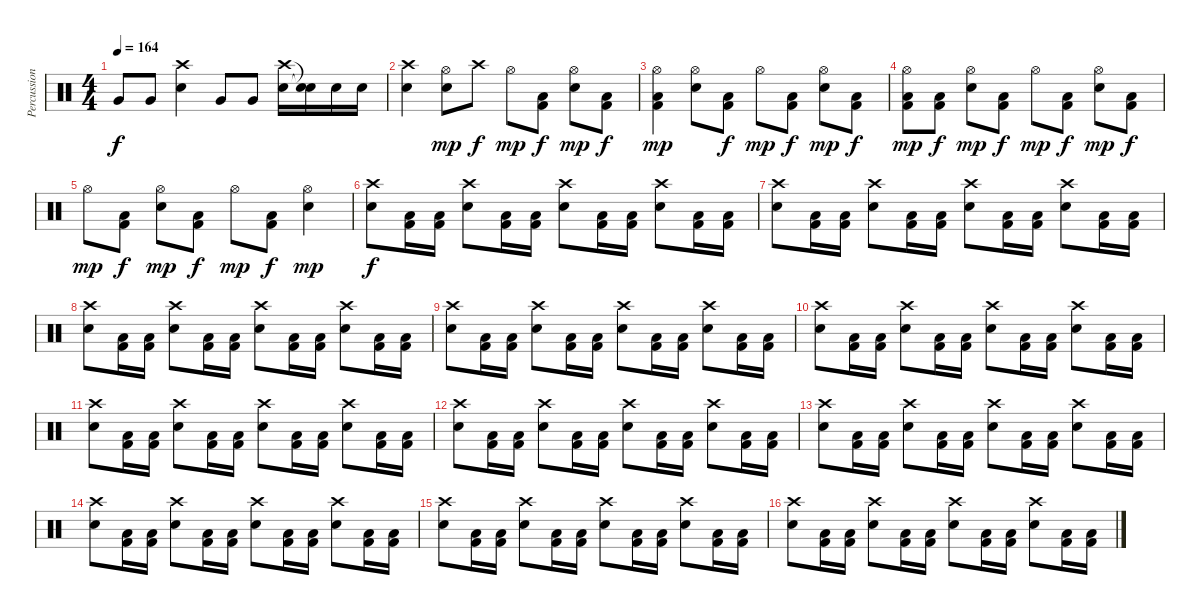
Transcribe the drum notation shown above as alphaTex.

\track ("Percussions" "Percussion") {instrument percussion}
\staff {score}
\articulation defaults
\ts (4 4)
\tempo 164
\clef neutral
\ks c "Very Low Tom (hit)".8{dy f} "Very Low Tom (hit)".8
("Electric Snare (hit)" "Crash high (hit)").4 "Very Low Tom (hit)".8 "Very Low Tom (hit)".8 ("Electric Snare (hit)" "Crash high (hit)").16 ("Snare (hit)"{t} "Snare (hit)"{t}).16 "Electric Snare (hit)".16 "Electric Snare (hit)".16 |
("Electric Snare (hit)" "Crash high (hit)").4 ("Electric Snare (hit)" "Hi-Hat (open)").8{dy mp} "Crash high (hit)".8{dy f} "Hi-Hat (open)".8{dy mp} ("Kick (hit) 2" "Low Floor Tom (hit)").8{dy f} ("Electric Snare (hit)" "Hi-Hat (open)").8{dy mp} ("Kick (hit) 2" "Low Floor Tom (hit)").8{dy f} |
("Kick (hit) 2" "Low Floor Tom (hit)" "Hi-Hat (open)").4{dy mp} ("Electric Snare (hit)" "Hi-Hat (open)").8 ("Kick (hit) 2" "Low Floor Tom (hit)").8{dy f} "Hi-Hat (open)".8{dy mp} ("Kick (hit) 2" "Low Floor Tom (hit)").8{dy f} ("Electric Snare (hit)" "Hi-Hat (open)").8{dy mp} ("Kick (hit) 2" "Low Floor Tom (hit)").8{dy f} |
("Kick (hit) 2" "Low Floor Tom (hit)" "Hi-Hat (open)").8{dy mp} ("Kick (hit) 2" "Low Floor Tom (hit)").8{dy f} ("Electric Snare (hit)" "Hi-Hat (open)").8{dy mp} ("Kick (hit) 2" "Low Floor Tom (hit)").8{dy f} "Hi-Hat (open)".8{dy mp} ("Kick (hit) 2" "Low Floor Tom (hit)").8{dy f} ("Electric Snare (hit)" "Hi-Hat (open)").8{dy mp} ("Kick (hit) 2" "Low Floor Tom (hit)").8{dy f} |
"Hi-Hat (open)".8{dy mp} ("Kick (hit) 2" "Low Floor Tom (hit)").8{dy f} ("Electric Snare (hit)" "Hi-Hat (open)").8{dy mp} ("Kick (hit) 2" "Low Floor Tom (hit)").8{dy f} "Hi-Hat (open)".8{dy mp} ("Kick (hit) 2" "Low Floor Tom (hit)").8{dy f} ("Electric Snare (hit)" "Hi-Hat (open)").4{dy mp} |
("Electric Snare (hit)" "Crash high (hit)").8{dy f} ("Kick (hit) 2" "Low Floor Tom (hit)").16 ("Kick (hit) 2" "Low Floor Tom (hit)").16 ("Electric Snare (hit)" "Crash high (hit)").8 ("Kick (hit) 2" "Low Floor Tom (hit)").16 ("Kick (hit) 2" "Low Floor Tom (hit)").16 ("Electric Snare (hit)" "Crash high (hit)").8 ("Kick (hit) 2" "Low Floor Tom (hit)").16 ("Kick (hit) 2" "Low Floor Tom (hit)").16 ("Electric Snare (hit)" "Crash high (hit)").8 ("Kick (hit) 2" "Low Floor Tom (hit)").16 ("Kick (hit) 2" "Low Floor Tom (hit)").16 |
("Electric Snare (hit)" "Crash high (hit)").8 ("Kick (hit) 2" "Low Floor Tom (hit)").16 ("Kick (hit) 2" "Low Floor Tom (hit)").16 ("Electric Snare (hit)" "Crash high (hit)").8 ("Kick (hit) 2" "Low Floor Tom (hit)").16 ("Kick (hit) 2" "Low Floor Tom (hit)").16 ("Electric Snare (hit)" "Crash high (hit)").8 ("Kick (hit) 2" "Low Floor Tom (hit)").16 ("Kick (hit) 2" "Low Floor Tom (hit)").16 ("Electric Snare (hit)" "Crash high (hit)").8 ("Kick (hit) 2" "Low Floor Tom (hit)").16 ("Kick (hit) 2" "Low Floor Tom (hit)").16 |
("Electric Snare (hit)" "Crash high (hit)").8 ("Kick (hit) 2" "Low Floor Tom (hit)").16 ("Kick (hit) 2" "Low Floor Tom (hit)").16 ("Electric Snare (hit)" "Crash high (hit)").8 ("Kick (hit) 2" "Low Floor Tom (hit)").16 ("Kick (hit) 2" "Low Floor Tom (hit)").16 ("Electric Snare (hit)" "Crash high (hit)").8 ("Kick (hit) 2" "Low Floor Tom (hit)").16 ("Kick (hit) 2" "Low Floor Tom (hit)").16 ("Electric Snare (hit)" "Crash high (hit)").8 ("Kick (hit) 2" "Low Floor Tom (hit)").16 ("Kick (hit) 2" "Low Floor Tom (hit)").16 |
("Electric Snare (hit)" "Crash high (hit)").8 ("Kick (hit) 2" "Low Floor Tom (hit)").16 ("Kick (hit) 2" "Low Floor Tom (hit)").16 ("Electric Snare (hit)" "Crash high (hit)").8 ("Kick (hit) 2" "Low Floor Tom (hit)").16 ("Kick (hit) 2" "Low Floor Tom (hit)").16 ("Electric Snare (hit)" "Crash high (hit)").8 ("Kick (hit) 2" "Low Floor Tom (hit)").16 ("Kick (hit) 2" "Low Floor Tom (hit)").16 ("Electric Snare (hit)" "Crash high (hit)").8 ("Kick (hit) 2" "Low Floor Tom (hit)").16 ("Kick (hit) 2" "Low Floor Tom (hit)").16 |
("Electric Snare (hit)" "Crash high (hit)").8 ("Kick (hit) 2" "Low Floor Tom (hit)").16 ("Kick (hit) 2" "Low Floor Tom (hit)").16 ("Electric Snare (hit)" "Crash high (hit)").8 ("Kick (hit) 2" "Low Floor Tom (hit)").16 ("Kick (hit) 2" "Low Floor Tom (hit)").16 ("Electric Snare (hit)" "Crash high (hit)").8 ("Kick (hit) 2" "Low Floor Tom (hit)").16 ("Kick (hit) 2" "Low Floor Tom (hit)").16 ("Electric Snare (hit)" "Crash high (hit)").8 ("Kick (hit) 2" "Low Floor Tom (hit)").16 ("Kick (hit) 2" "Low Floor Tom (hit)").16 |
("Electric Snare (hit)" "Crash high (hit)").8 ("Kick (hit) 2" "Low Floor Tom (hit)").16 ("Kick (hit) 2" "Low Floor Tom (hit)").16 ("Electric Snare (hit)" "Crash high (hit)").8 ("Kick (hit) 2" "Low Floor Tom (hit)").16 ("Kick (hit) 2" "Low Floor Tom (hit)").16 ("Electric Snare (hit)" "Crash high (hit)").8 ("Kick (hit) 2" "Low Floor Tom (hit)").16 ("Kick (hit) 2" "Low Floor Tom (hit)").16 ("Electric Snare (hit)" "Crash high (hit)").8 ("Kick (hit) 2" "Low Floor Tom (hit)").16 ("Kick (hit) 2" "Low Floor Tom (hit)").16 |
("Electric Snare (hit)" "Crash high (hit)").8 ("Kick (hit) 2" "Low Floor Tom (hit)").16 ("Kick (hit) 2" "Low Floor Tom (hit)").16 ("Electric Snare (hit)" "Crash high (hit)").8 ("Kick (hit) 2" "Low Floor Tom (hit)").16 ("Kick (hit) 2" "Low Floor Tom (hit)").16 ("Electric Snare (hit)" "Crash high (hit)").8 ("Kick (hit) 2" "Low Floor Tom (hit)").16 ("Kick (hit) 2" "Low Floor Tom (hit)").16 ("Electric Snare (hit)" "Crash high (hit)").8 ("Kick (hit) 2" "Low Floor Tom (hit)").16 ("Kick (hit) 2" "Low Floor Tom (hit)").16 |
("Electric Snare (hit)" "Crash high (hit)").8 ("Kick (hit) 2" "Low Floor Tom (hit)").16 ("Kick (hit) 2" "Low Floor Tom (hit)").16 ("Electric Snare (hit)" "Crash high (hit)").8 ("Kick (hit) 2" "Low Floor Tom (hit)").16 ("Kick (hit) 2" "Low Floor Tom (hit)").16 ("Electric Snare (hit)" "Crash high (hit)").8 ("Kick (hit) 2" "Low Floor Tom (hit)").16 ("Kick (hit) 2" "Low Floor Tom (hit)").16 ("Electric Snare (hit)" "Crash high (hit)").8 ("Kick (hit) 2" "Low Floor Tom (hit)").16 ("Kick (hit) 2" "Low Floor Tom (hit)").16 |
("Electric Snare (hit)" "Crash high (hit)").8 ("Kick (hit) 2" "Low Floor Tom (hit)").16 ("Kick (hit) 2" "Low Floor Tom (hit)").16 ("Electric Snare (hit)" "Crash high (hit)").8 ("Kick (hit) 2" "Low Floor Tom (hit)").16 ("Kick (hit) 2" "Low Floor Tom (hit)").16 ("Electric Snare (hit)" "Crash high (hit)").8 ("Kick (hit) 2" "Low Floor Tom (hit)").16 ("Kick (hit) 2" "Low Floor Tom (hit)").16 ("Electric Snare (hit)" "Crash high (hit)").8 ("Kick (hit) 2" "Low Floor Tom (hit)").16 ("Kick (hit) 2" "Low Floor Tom (hit)").16 |
("Electric Snare (hit)" "Crash high (hit)").8 ("Kick (hit) 2" "Low Floor Tom (hit)").16 ("Kick (hit) 2" "Low Floor Tom (hit)").16 ("Electric Snare (hit)" "Crash high (hit)").8 ("Kick (hit) 2" "Low Floor Tom (hit)").16 ("Kick (hit) 2" "Low Floor Tom (hit)").16 ("Electric Snare (hit)" "Crash high (hit)").8 ("Kick (hit) 2" "Low Floor Tom (hit)").16 ("Kick (hit) 2" "Low Floor Tom (hit)").16 ("Electric Snare (hit)" "Crash high (hit)").8 ("Kick (hit) 2" "Low Floor Tom (hit)").16 ("Kick (hit) 2" "Low Floor Tom (hit)").16 |
("Electric Snare (hit)" "Crash high (hit)").8 ("Kick (hit) 2" "Low Floor Tom (hit)").16 ("Kick (hit) 2" "Low Floor Tom (hit)").16 ("Electric Snare (hit)" "Crash high (hit)").8 ("Kick (hit) 2" "Low Floor Tom (hit)").16 ("Kick (hit) 2" "Low Floor Tom (hit)").16 ("Electric Snare (hit)" "Crash high (hit)").8 ("Kick (hit) 2" "Low Floor Tom (hit)").16 ("Kick (hit) 2" "Low Floor Tom (hit)").16 ("Electric Snare (hit)" "Crash high (hit)").8 ("Kick (hit) 2" "Low Floor Tom (hit)").16 ("Kick (hit) 2" "Low Floor Tom (hit)").16
